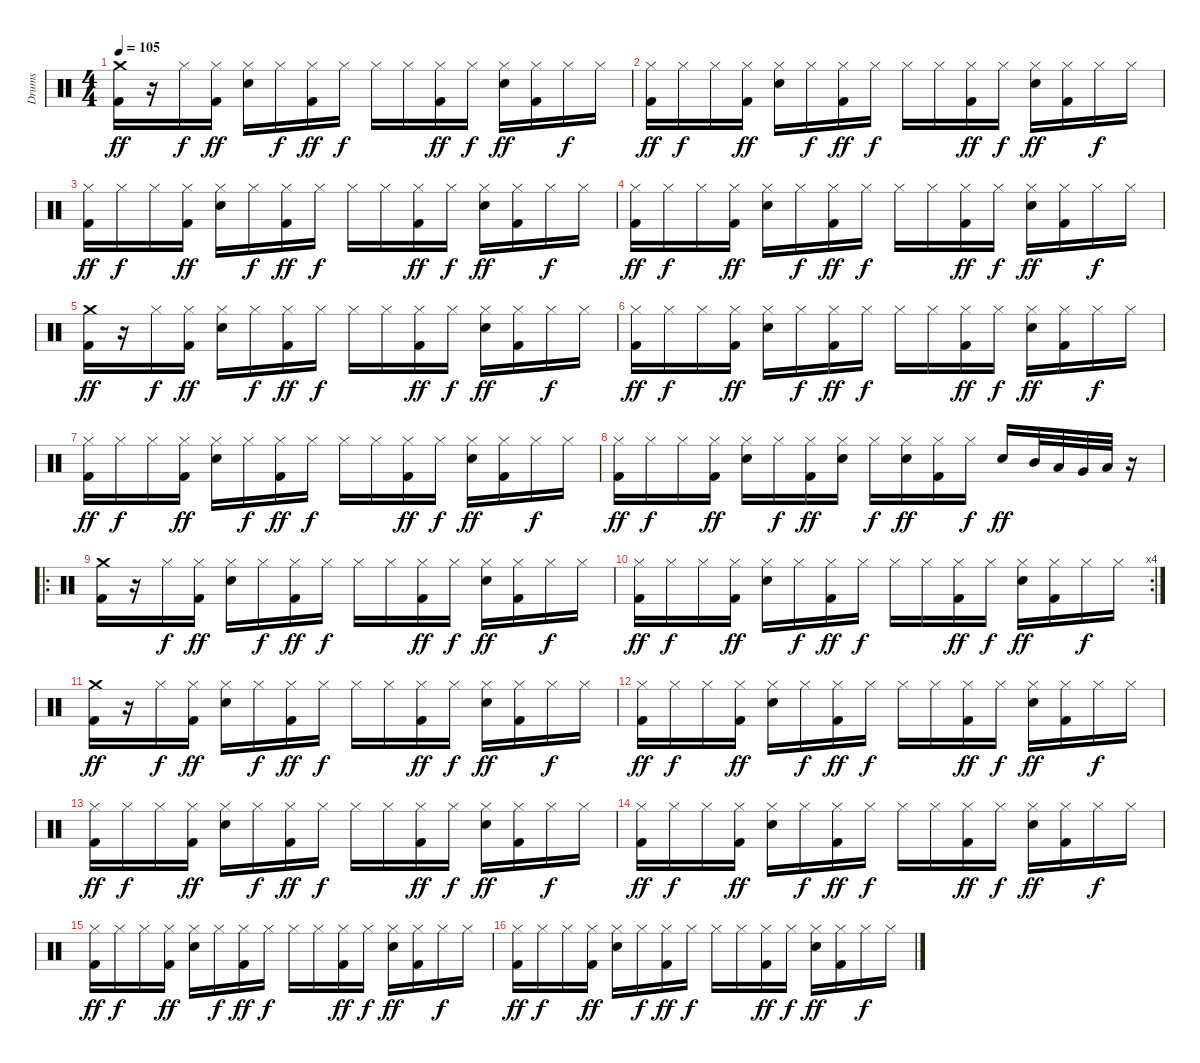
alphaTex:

\track ("Drums" "Drums") {instrument percussion}
\staff {score}
\articulation defaults
\ts (4 4)
\tempo 105
\clef neutral
\ks c
("Crash medium (hit)" "Kick (hit) 2").16{dy ff} r.16 "Hi-Hat (closed)".16{dy f} ("Hi-Hat (closed)" "Kick (hit) 2").16{dy ff} ("Hi-Hat (closed)" "Electric Snare (hit)").16 "Hi-Hat (closed)".16{dy f} ("Hi-Hat (closed)" "Kick (hit) 2").16{dy ff} "Hi-Hat (closed)".16{dy f} "Hi-Hat (closed)".16 "Hi-Hat (closed)".16 ("Hi-Hat (closed)" "Kick (hit) 2").16{dy ff} "Hi-Hat (closed)".16{dy f} ("Hi-Hat (closed)" "Electric Snare (hit)").16{dy ff} ("Hi-Hat (closed)" "Kick (hit) 2").16 "Hi-Hat (closed)".16{dy f} "Hi-Hat (closed)".16 |
("Hi-Hat (closed)" "Kick (hit) 2").16{dy ff} "Hi-Hat (closed)".16{dy f} "Hi-Hat (closed)".16 ("Hi-Hat (closed)" "Kick (hit) 2").16{dy ff} ("Hi-Hat (closed)" "Electric Snare (hit)").16 "Hi-Hat (closed)".16{dy f} ("Hi-Hat (closed)" "Kick (hit) 2").16{dy ff} "Hi-Hat (closed)".16{dy f} "Hi-Hat (closed)".16 "Hi-Hat (closed)".16 ("Hi-Hat (closed)" "Kick (hit) 2").16{dy ff} "Hi-Hat (closed)".16{dy f} ("Hi-Hat (closed)" "Electric Snare (hit)").16{dy ff} ("Hi-Hat (closed)" "Kick (hit) 2").16 "Hi-Hat (closed)".16{dy f} "Hi-Hat (closed)".16 |
("Hi-Hat (closed)" "Kick (hit) 2").16{dy ff} "Hi-Hat (closed)".16{dy f} "Hi-Hat (closed)".16 ("Hi-Hat (closed)" "Kick (hit) 2").16{dy ff} ("Hi-Hat (closed)" "Electric Snare (hit)").16 "Hi-Hat (closed)".16{dy f} ("Hi-Hat (closed)" "Kick (hit) 2").16{dy ff} "Hi-Hat (closed)".16{dy f} "Hi-Hat (closed)".16 "Hi-Hat (closed)".16 ("Hi-Hat (closed)" "Kick (hit) 2").16{dy ff} "Hi-Hat (closed)".16{dy f} ("Hi-Hat (closed)" "Electric Snare (hit)").16{dy ff} ("Hi-Hat (closed)" "Kick (hit) 2").16 "Hi-Hat (closed)".16{dy f} "Hi-Hat (closed)".16 |
("Hi-Hat (closed)" "Kick (hit) 2").16{dy ff} "Hi-Hat (closed)".16{dy f} "Hi-Hat (closed)".16 ("Hi-Hat (closed)" "Kick (hit) 2").16{dy ff} ("Hi-Hat (closed)" "Electric Snare (hit)").16 "Hi-Hat (closed)".16{dy f} ("Hi-Hat (closed)" "Kick (hit) 2").16{dy ff} "Hi-Hat (closed)".16{dy f} "Hi-Hat (closed)".16 "Hi-Hat (closed)".16 ("Hi-Hat (closed)" "Kick (hit) 2").16{dy ff} "Hi-Hat (closed)".16{dy f} ("Hi-Hat (closed)" "Electric Snare (hit)").16{dy ff} ("Hi-Hat (closed)" "Kick (hit) 2").16 "Hi-Hat (closed)".16{dy f} "Hi-Hat (closed)".16 |
("Crash medium (hit)" "Kick (hit) 2").16{dy ff} r.16 "Hi-Hat (closed)".16{dy f} ("Hi-Hat (closed)" "Kick (hit) 2").16{dy ff} ("Hi-Hat (closed)" "Electric Snare (hit)").16 "Hi-Hat (closed)".16{dy f} ("Hi-Hat (closed)" "Kick (hit) 2").16{dy ff} "Hi-Hat (closed)".16{dy f} "Hi-Hat (closed)".16 "Hi-Hat (closed)".16 ("Hi-Hat (closed)" "Kick (hit) 2").16{dy ff} "Hi-Hat (closed)".16{dy f} ("Hi-Hat (closed)" "Electric Snare (hit)").16{dy ff} ("Hi-Hat (closed)" "Kick (hit) 2").16 "Hi-Hat (closed)".16{dy f} "Hi-Hat (closed)".16 |
("Hi-Hat (closed)" "Kick (hit) 2").16{dy ff} "Hi-Hat (closed)".16{dy f} "Hi-Hat (closed)".16 ("Hi-Hat (closed)" "Kick (hit) 2").16{dy ff} ("Hi-Hat (closed)" "Electric Snare (hit)").16 "Hi-Hat (closed)".16{dy f} ("Hi-Hat (closed)" "Kick (hit) 2").16{dy ff} "Hi-Hat (closed)".16{dy f} "Hi-Hat (closed)".16 "Hi-Hat (closed)".16 ("Hi-Hat (closed)" "Kick (hit) 2").16{dy ff} "Hi-Hat (closed)".16{dy f} ("Hi-Hat (closed)" "Electric Snare (hit)").16{dy ff} ("Hi-Hat (closed)" "Kick (hit) 2").16 "Hi-Hat (closed)".16{dy f} "Hi-Hat (closed)".16 |
("Hi-Hat (closed)" "Kick (hit) 2").16{dy ff} "Hi-Hat (closed)".16{dy f} "Hi-Hat (closed)".16 ("Hi-Hat (closed)" "Kick (hit) 2").16{dy ff} ("Hi-Hat (closed)" "Electric Snare (hit)").16 "Hi-Hat (closed)".16{dy f} ("Hi-Hat (closed)" "Kick (hit) 2").16{dy ff} "Hi-Hat (closed)".16{dy f} "Hi-Hat (closed)".16 "Hi-Hat (closed)".16 ("Hi-Hat (closed)" "Kick (hit) 2").16{dy ff} "Hi-Hat (closed)".16{dy f} ("Hi-Hat (closed)" "Electric Snare (hit)").16{dy ff} ("Hi-Hat (closed)" "Kick (hit) 2").16 "Hi-Hat (closed)".16{dy f} "Hi-Hat (closed)".16 |
("Hi-Hat (closed)" "Kick (hit) 2").16{dy ff} "Hi-Hat (closed)".16{dy f} "Hi-Hat (closed)".16 ("Hi-Hat (closed)" "Kick (hit) 2").16{dy ff} ("Hi-Hat (closed)" "Electric Snare (hit)").16 "Hi-Hat (closed)".16{dy f} ("Hi-Hat (closed)" "Kick (hit) 2").16{dy ff} ("Hi-Hat (closed)" "Electric Snare (hit)").16 "Hi-Hat (closed)".16{dy f} ("Hi-Hat (closed)" "Electric Snare (hit)").16{dy ff} ("Hi-Hat (closed)" "Kick (hit) 2").16 "Hi-Hat (closed)".16{dy f} "Electric Snare (hit)".16{dy ff} "Mid Tom (hit)".32 "Low Tom (hit)".32 "Very Low Tom (hit)".32 "Low Floor Tom (hit)".32 r.16 |
\ro
("Crash medium (hit)" "Kick (hit) 2").16 r.16 "Hi-Hat (closed)".16{dy f} ("Hi-Hat (closed)" "Kick (hit) 2").16{dy ff} ("Hi-Hat (closed)" "Electric Snare (hit)").16 "Hi-Hat (closed)".16{dy f} ("Hi-Hat (closed)" "Kick (hit) 2").16{dy ff} "Hi-Hat (closed)".16{dy f} "Hi-Hat (closed)".16 "Hi-Hat (closed)".16 ("Hi-Hat (closed)" "Kick (hit) 2").16{dy ff} "Hi-Hat (closed)".16{dy f} ("Hi-Hat (closed)" "Electric Snare (hit)").16{dy ff} ("Hi-Hat (closed)" "Kick (hit) 2").16 "Hi-Hat (closed)".16{dy f} "Hi-Hat (closed)".16 |
\rc 4
("Hi-Hat (closed)" "Kick (hit) 2").16{dy ff} "Hi-Hat (closed)".16{dy f} "Hi-Hat (closed)".16 ("Hi-Hat (closed)" "Kick (hit) 2").16{dy ff} ("Hi-Hat (closed)" "Electric Snare (hit)").16 "Hi-Hat (closed)".16{dy f} ("Hi-Hat (closed)" "Kick (hit) 2").16{dy ff} "Hi-Hat (closed)".16{dy f} "Hi-Hat (closed)".16 "Hi-Hat (closed)".16 ("Hi-Hat (closed)" "Kick (hit) 2").16{dy ff} "Hi-Hat (closed)".16{dy f} ("Hi-Hat (closed)" "Electric Snare (hit)").16{dy ff} ("Hi-Hat (closed)" "Kick (hit) 2").16 "Hi-Hat (closed)".16{dy f} "Hi-Hat (closed)".16 |
("Crash medium (hit)" "Kick (hit) 2").16{dy ff} r.16 "Hi-Hat (closed)".16{dy f} ("Hi-Hat (closed)" "Kick (hit) 2").16{dy ff} ("Hi-Hat (closed)" "Electric Snare (hit)").16 "Hi-Hat (closed)".16{dy f} ("Hi-Hat (closed)" "Kick (hit) 2").16{dy ff} "Hi-Hat (closed)".16{dy f} "Hi-Hat (closed)".16 "Hi-Hat (closed)".16 ("Hi-Hat (closed)" "Kick (hit) 2").16{dy ff} "Hi-Hat (closed)".16{dy f} ("Hi-Hat (closed)" "Electric Snare (hit)").16{dy ff} ("Hi-Hat (closed)" "Kick (hit) 2").16 "Hi-Hat (closed)".16{dy f} "Hi-Hat (closed)".16 |
("Hi-Hat (closed)" "Kick (hit) 2").16{dy ff} "Hi-Hat (closed)".16{dy f} "Hi-Hat (closed)".16 ("Hi-Hat (closed)" "Kick (hit) 2").16{dy ff} ("Hi-Hat (closed)" "Electric Snare (hit)").16 "Hi-Hat (closed)".16{dy f} ("Hi-Hat (closed)" "Kick (hit) 2").16{dy ff} "Hi-Hat (closed)".16{dy f} "Hi-Hat (closed)".16 "Hi-Hat (closed)".16 ("Hi-Hat (closed)" "Kick (hit) 2").16{dy ff} "Hi-Hat (closed)".16{dy f} ("Hi-Hat (closed)" "Electric Snare (hit)").16{dy ff} ("Hi-Hat (closed)" "Kick (hit) 2").16 "Hi-Hat (closed)".16{dy f} "Hi-Hat (closed)".16 |
("Hi-Hat (closed)" "Kick (hit) 2").16{dy ff} "Hi-Hat (closed)".16{dy f} "Hi-Hat (closed)".16 ("Hi-Hat (closed)" "Kick (hit) 2").16{dy ff} ("Hi-Hat (closed)" "Electric Snare (hit)").16 "Hi-Hat (closed)".16{dy f} ("Hi-Hat (closed)" "Kick (hit) 2").16{dy ff} "Hi-Hat (closed)".16{dy f} "Hi-Hat (closed)".16 "Hi-Hat (closed)".16 ("Hi-Hat (closed)" "Kick (hit) 2").16{dy ff} "Hi-Hat (closed)".16{dy f} ("Hi-Hat (closed)" "Electric Snare (hit)").16{dy ff} ("Hi-Hat (closed)" "Kick (hit) 2").16 "Hi-Hat (closed)".16{dy f} "Hi-Hat (closed)".16 |
("Hi-Hat (closed)" "Kick (hit) 2").16{dy ff} "Hi-Hat (closed)".16{dy f} "Hi-Hat (closed)".16 ("Hi-Hat (closed)" "Kick (hit) 2").16{dy ff} ("Hi-Hat (closed)" "Electric Snare (hit)").16 "Hi-Hat (closed)".16{dy f} ("Hi-Hat (closed)" "Kick (hit) 2").16{dy ff} "Hi-Hat (closed)".16{dy f} "Hi-Hat (closed)".16 "Hi-Hat (closed)".16 ("Hi-Hat (closed)" "Kick (hit) 2").16{dy ff} "Hi-Hat (closed)".16{dy f} ("Hi-Hat (closed)" "Electric Snare (hit)").16{dy ff} ("Hi-Hat (closed)" "Kick (hit) 2").16 "Hi-Hat (closed)".16{dy f} "Hi-Hat (closed)".16 |
("Hi-Hat (closed)" "Kick (hit) 2").16{dy ff} "Hi-Hat (closed)".16{dy f} "Hi-Hat (closed)".16 ("Hi-Hat (closed)" "Kick (hit) 2").16{dy ff} ("Hi-Hat (closed)" "Electric Snare (hit)").16 "Hi-Hat (closed)".16{dy f} ("Hi-Hat (closed)" "Kick (hit) 2").16{dy ff} "Hi-Hat (closed)".16{dy f} "Hi-Hat (closed)".16 "Hi-Hat (closed)".16 ("Hi-Hat (closed)" "Kick (hit) 2").16{dy ff} "Hi-Hat (closed)".16{dy f} ("Hi-Hat (closed)" "Electric Snare (hit)").16{dy ff} ("Hi-Hat (closed)" "Kick (hit) 2").16 "Hi-Hat (closed)".16{dy f} "Hi-Hat (closed)".16 |
("Hi-Hat (closed)" "Kick (hit) 2").16{dy ff} "Hi-Hat (closed)".16{dy f} "Hi-Hat (closed)".16 ("Hi-Hat (closed)" "Kick (hit) 2").16{dy ff} ("Hi-Hat (closed)" "Electric Snare (hit)").16 "Hi-Hat (closed)".16{dy f} ("Hi-Hat (closed)" "Kick (hit) 2").16{dy ff} "Hi-Hat (closed)".16{dy f} "Hi-Hat (closed)".16 "Hi-Hat (closed)".16 ("Hi-Hat (closed)" "Kick (hit) 2").16{dy ff} "Hi-Hat (closed)".16{dy f} ("Hi-Hat (closed)" "Electric Snare (hit)").16{dy ff} ("Hi-Hat (closed)" "Kick (hit) 2").16 "Hi-Hat (closed)".16{dy f} "Hi-Hat (closed)".16
